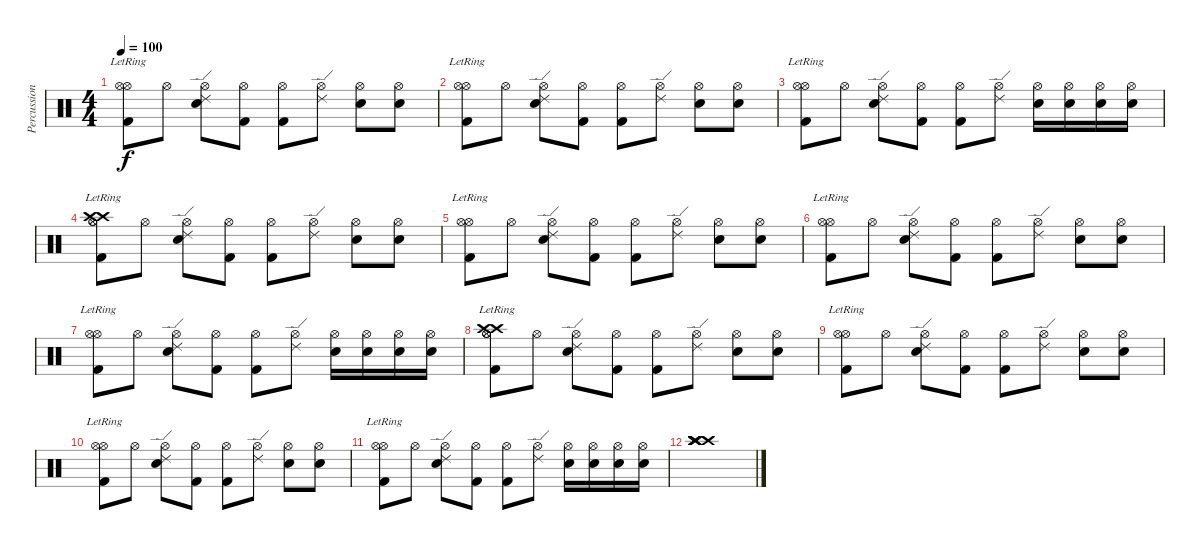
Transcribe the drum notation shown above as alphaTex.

\track ("Percussion" "Percussion") {instrument percussion}
\staff {score}
\articulation defaults
\ts (4 4)
\tempo 100
\clef neutral
\ks c
("Hi-Hat (open)" "Kick (hit) 2"{lr} "Hi-Hat (open)"{lr}).8{dy f} "Hi-Hat (open)".8 ("Ride (edge) 2" "Hi-Hat (open)" "Electric Snare (hit)").8 ("Hi-Hat (open)" "Kick (hit) 2").8 ("Hi-Hat (open)" "Kick (hit) 2").8 ("Ride (edge) 2" "Hi-Hat (open)").8 ("Hi-Hat (open)" "Electric Snare (hit)").8 ("Hi-Hat (open)" "Electric Snare (hit)").8 |
("Hi-Hat (open)" "Kick (hit) 2"{lr} "Hi-Hat (open)"{lr}).8 "Hi-Hat (open)".8 ("Ride (edge) 2" "Hi-Hat (open)" "Electric Snare (hit)").8 ("Hi-Hat (open)" "Kick (hit) 2").8 ("Hi-Hat (open)" "Kick (hit) 2").8 ("Ride (edge) 2" "Hi-Hat (open)").8 ("Hi-Hat (open)" "Electric Snare (hit)").8 ("Hi-Hat (open)" "Electric Snare (hit)").8 |
("Hi-Hat (open)" "Kick (hit) 2"{lr} "Hi-Hat (open)"{lr}).8 "Hi-Hat (open)".8 ("Ride (edge) 2" "Hi-Hat (open)" "Electric Snare (hit)").8 ("Hi-Hat (open)" "Kick (hit) 2").8 ("Hi-Hat (open)" "Kick (hit) 2").8 ("Ride (edge) 2" "Hi-Hat (open)").8 ("Hi-Hat (open)" "Electric Snare (hit)").16 ("Hi-Hat (open)" "Electric Snare (hit)").16 ("Hi-Hat (open)" "Electric Snare (hit)").16 ("Hi-Hat (open)" "Electric Snare (hit)").16 |
("Crash high (hit)"{lr} "Hi-Hat (open)" "Kick (hit) 2"{lr} "Hi-Hat (open)"{lr} "Crash high (hit)"{lr}).8 "Hi-Hat (open)".8 ("Ride (edge) 2" "Hi-Hat (open)" "Electric Snare (hit)").8 ("Hi-Hat (open)" "Kick (hit) 2").8 ("Hi-Hat (open)" "Kick (hit) 2").8 ("Ride (edge) 2" "Hi-Hat (open)").8 ("Hi-Hat (open)" "Electric Snare (hit)").8 ("Hi-Hat (open)" "Electric Snare (hit)").8 |
("Hi-Hat (open)" "Kick (hit) 2"{lr} "Hi-Hat (open)"{lr}).8 "Hi-Hat (open)".8 ("Ride (edge) 2" "Hi-Hat (open)" "Electric Snare (hit)").8 ("Hi-Hat (open)" "Kick (hit) 2").8 ("Hi-Hat (open)" "Kick (hit) 2").8 ("Ride (edge) 2" "Hi-Hat (open)").8 ("Hi-Hat (open)" "Electric Snare (hit)").8 ("Hi-Hat (open)" "Electric Snare (hit)").8 |
("Hi-Hat (open)" "Kick (hit) 2"{lr} "Hi-Hat (open)"{lr}).8 "Hi-Hat (open)".8 ("Ride (edge) 2" "Hi-Hat (open)" "Electric Snare (hit)").8 ("Hi-Hat (open)" "Kick (hit) 2").8 ("Hi-Hat (open)" "Kick (hit) 2").8 ("Ride (edge) 2" "Hi-Hat (open)").8 ("Hi-Hat (open)" "Electric Snare (hit)").8 ("Hi-Hat (open)" "Electric Snare (hit)").8 |
("Hi-Hat (open)" "Kick (hit) 2"{lr} "Hi-Hat (open)"{lr}).8 "Hi-Hat (open)".8 ("Ride (edge) 2" "Hi-Hat (open)" "Electric Snare (hit)").8 ("Hi-Hat (open)" "Kick (hit) 2").8 ("Hi-Hat (open)" "Kick (hit) 2").8 ("Ride (edge) 2" "Hi-Hat (open)").8 ("Hi-Hat (open)" "Electric Snare (hit)").16 ("Hi-Hat (open)" "Electric Snare (hit)").16 ("Hi-Hat (open)" "Electric Snare (hit)").16 ("Hi-Hat (open)" "Electric Snare (hit)").16 |
("Crash high (hit)"{lr} "Hi-Hat (open)" "Kick (hit) 2"{lr} "Hi-Hat (open)"{lr} "Crash high (hit)"{lr}).8 "Hi-Hat (open)".8 ("Ride (edge) 2" "Hi-Hat (open)" "Electric Snare (hit)").8 ("Hi-Hat (open)" "Kick (hit) 2").8 ("Hi-Hat (open)" "Kick (hit) 2").8 ("Ride (edge) 2" "Hi-Hat (open)").8 ("Hi-Hat (open)" "Electric Snare (hit)").8 ("Hi-Hat (open)" "Electric Snare (hit)").8 |
("Hi-Hat (open)" "Kick (hit) 2"{lr} "Hi-Hat (open)"{lr}).8 "Hi-Hat (open)".8 ("Ride (edge) 2" "Hi-Hat (open)" "Electric Snare (hit)").8 ("Hi-Hat (open)" "Kick (hit) 2").8 ("Hi-Hat (open)" "Kick (hit) 2").8 ("Ride (edge) 2" "Hi-Hat (open)").8 ("Hi-Hat (open)" "Electric Snare (hit)").8 ("Hi-Hat (open)" "Electric Snare (hit)").8 |
("Hi-Hat (open)" "Kick (hit) 2"{lr} "Hi-Hat (open)"{lr}).8 "Hi-Hat (open)".8 ("Ride (edge) 2" "Hi-Hat (open)" "Electric Snare (hit)").8 ("Hi-Hat (open)" "Kick (hit) 2").8 ("Hi-Hat (open)" "Kick (hit) 2").8 ("Ride (edge) 2" "Hi-Hat (open)").8 ("Hi-Hat (open)" "Electric Snare (hit)").8 ("Hi-Hat (open)" "Electric Snare (hit)").8 |
("Hi-Hat (open)" "Kick (hit) 2"{lr} "Hi-Hat (open)"{lr}).8 "Hi-Hat (open)".8 ("Ride (edge) 2" "Hi-Hat (open)" "Electric Snare (hit)").8 ("Hi-Hat (open)" "Kick (hit) 2").8 ("Hi-Hat (open)" "Kick (hit) 2").8 ("Ride (edge) 2" "Hi-Hat (open)").8 ("Hi-Hat (open)" "Electric Snare (hit)").16 ("Hi-Hat (open)" "Electric Snare (hit)").16 ("Hi-Hat (open)" "Electric Snare (hit)").16 ("Hi-Hat (open)" "Electric Snare (hit)").16 |
("Crash high (hit)" "Crash high (hit)" "Crash high (hit)" "Crash high (hit)" "Crash high (hit)" "Crash high (hit)").1
